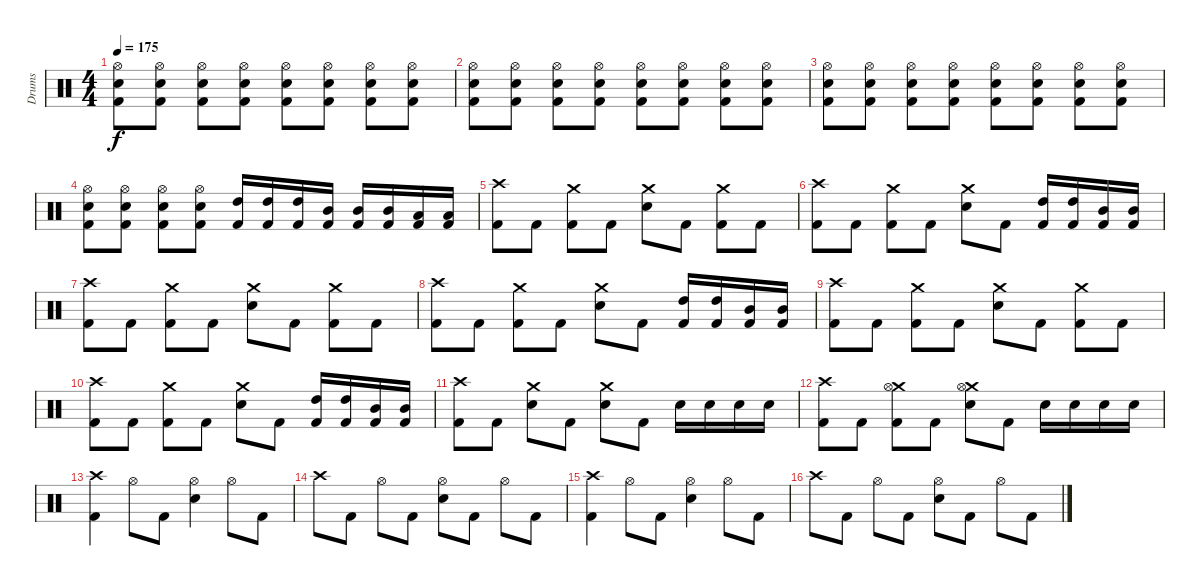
\track ("Drums" "Drums") {instrument percussion}
\staff {score}
\articulation defaults
\ts (4 4)
\tempo 175
\clef neutral
\ks c
("Hi-Hat (open)" "Snare (hit) 2" "Kick (hit) 2").8{dy f} ("Hi-Hat (open)" "Snare (hit) 2" "Kick (hit) 2").8 ("Hi-Hat (open)" "Snare (hit) 2" "Kick (hit) 2").8 ("Hi-Hat (open)" "Snare (hit) 2" "Kick (hit) 2").8 ("Hi-Hat (open)" "Snare (hit) 2" "Kick (hit) 2").8 ("Hi-Hat (open)" "Snare (hit) 2" "Kick (hit) 2").8 ("Hi-Hat (open)" "Snare (hit) 2" "Kick (hit) 2").8 ("Hi-Hat (open)" "Snare (hit) 2" "Kick (hit) 2").8 |
("Hi-Hat (open)" "Snare (hit) 2" "Kick (hit) 2").8 ("Hi-Hat (open)" "Snare (hit) 2" "Kick (hit) 2").8 ("Hi-Hat (open)" "Snare (hit) 2" "Kick (hit) 2").8 ("Hi-Hat (open)" "Snare (hit) 2" "Kick (hit) 2").8 ("Hi-Hat (open)" "Snare (hit) 2" "Kick (hit) 2").8 ("Hi-Hat (open)" "Snare (hit) 2" "Kick (hit) 2").8 ("Hi-Hat (open)" "Snare (hit) 2" "Kick (hit) 2").8 ("Hi-Hat (open)" "Snare (hit) 2" "Kick (hit) 2").8 |
("Hi-Hat (open)" "Snare (hit) 2" "Kick (hit) 2").8 ("Hi-Hat (open)" "Snare (hit) 2" "Kick (hit) 2").8 ("Hi-Hat (open)" "Snare (hit) 2" "Kick (hit) 2").8 ("Hi-Hat (open)" "Snare (hit) 2" "Kick (hit) 2").8 ("Hi-Hat (open)" "Snare (hit) 2" "Kick (hit) 2").8 ("Hi-Hat (open)" "Snare (hit) 2" "Kick (hit) 2").8 ("Hi-Hat (open)" "Snare (hit) 2" "Kick (hit) 2").8 ("Hi-Hat (open)" "Snare (hit) 2" "Kick (hit) 2").8 |
("Hi-Hat (open)" "Snare (hit) 2" "Kick (hit) 2").8 ("Hi-Hat (open)" "Snare (hit) 2" "Kick (hit) 2").8 ("Hi-Hat (open)" "Snare (hit) 2" "Kick (hit) 2").8 ("Hi-Hat (open)" "Snare (hit) 2" "Kick (hit) 2").8 ("High Tom (hit)" "Kick (hit) 2").16 ("High Tom (hit)" "Kick (hit) 2").16 ("High Tom (hit)" "Kick (hit) 2").16 ("Mid Tom (hit)" "Kick (hit) 2").16 ("Mid Tom (hit)" "Kick (hit) 2").16 ("Mid Tom (hit)" "Kick (hit) 2").16 ("Low Tom (hit)" "Kick (hit) 2").16 ("Low Tom (hit)" "Kick (hit) 2").16 |
("Crash high (hit)" "Kick (hit) 2").8 "Kick (hit) 2".8 ("Crash medium (hit)" "Kick (hit) 2").8 "Kick (hit) 2".8 ("Crash medium (hit)" "Snare (hit) 2").8 "Kick (hit) 2".8 ("Crash medium (hit)" "Kick (hit) 2").8 "Kick (hit) 2".8 |
("Crash high (hit)" "Kick (hit) 2").8 "Kick (hit) 2".8 ("Crash medium (hit)" "Kick (hit) 2").8 "Kick (hit) 2".8 ("Crash medium (hit)" "Snare (hit) 2").8 "Kick (hit) 2".8 ("High Tom (hit)" "Kick (hit) 2").16 ("High Tom (hit)" "Kick (hit) 2").16 ("Mid Tom (hit)" "Kick (hit) 2").16 ("Mid Tom (hit)" "Kick (hit) 2").16 |
("Crash high (hit)" "Kick (hit) 2").8 "Kick (hit) 2".8 ("Crash medium (hit)" "Kick (hit) 2").8 "Kick (hit) 2".8 ("Crash medium (hit)" "Snare (hit) 2").8 "Kick (hit) 2".8 ("Crash medium (hit)" "Kick (hit) 2").8 "Kick (hit) 2".8 |
("Crash high (hit)" "Kick (hit) 2").8 "Kick (hit) 2".8 ("Crash medium (hit)" "Kick (hit) 2").8 "Kick (hit) 2".8 ("Crash medium (hit)" "Snare (hit) 2").8 "Kick (hit) 2".8 ("High Tom (hit)" "Kick (hit) 2").16 ("High Tom (hit)" "Kick (hit) 2").16 ("Mid Tom (hit)" "Kick (hit) 2").16 ("Mid Tom (hit)" "Kick (hit) 2").16 |
("Crash high (hit)" "Kick (hit) 2").8 "Kick (hit) 2".8 ("Crash medium (hit)" "Kick (hit) 2").8 "Kick (hit) 2".8 ("Crash medium (hit)" "Snare (hit) 2").8 "Kick (hit) 2".8 ("Crash medium (hit)" "Kick (hit) 2").8 "Kick (hit) 2".8 |
("Crash high (hit)" "Kick (hit) 2").8 "Kick (hit) 2".8 ("Crash medium (hit)" "Kick (hit) 2").8 "Kick (hit) 2".8 ("Crash medium (hit)" "Snare (hit) 2").8 "Kick (hit) 2".8 ("High Tom (hit)" "Kick (hit) 2").16 ("High Tom (hit)" "Kick (hit) 2").16 ("Mid Tom (hit)" "Kick (hit) 2").16 ("Mid Tom (hit)" "Kick (hit) 2").16 |
("Crash high (hit)" "Kick (hit) 2").8 "Kick (hit) 2".8 ("Crash medium (hit)" "Snare (hit) 2").8 "Kick (hit) 2".8 ("Crash medium (hit)" "Snare (hit) 2").8 "Kick (hit) 2".8 "Snare (hit) 2".16 "Snare (hit) 2".16 "Snare (hit) 2".16 "Snare (hit) 2".16 |
("Crash high (hit)" "Kick (hit) 2").8 "Kick (hit) 2".8 ("Crash medium (hit)" "Hi-Hat (open)" "Kick (hit) 2").8 "Kick (hit) 2".8 ("Crash medium (hit)" "Hi-Hat (open)" "Snare (hit) 2").8 "Kick (hit) 2".8 "Snare (hit) 2".16 "Snare (hit) 2".16 "Snare (hit) 2".16 "Snare (hit) 2".16 |
("Crash high (hit)" "Kick (hit) 2").4 "Hi-Hat (open)".8 "Kick (hit) 2".8 ("Hi-Hat (open)" "Snare (hit) 2").4 "Hi-Hat (open)".8 "Kick (hit) 2".8 |
"Crash high (hit)".8 "Kick (hit) 2".8 "Hi-Hat (open)".8 "Kick (hit) 2".8 ("Hi-Hat (open)" "Snare (hit) 2").8 "Kick (hit) 2".8 "Hi-Hat (open)".8 "Kick (hit) 2".8 |
("Crash high (hit)" "Kick (hit) 2").4 "Hi-Hat (open)".8 "Kick (hit) 2".8 ("Hi-Hat (open)" "Snare (hit) 2").4 "Hi-Hat (open)".8 "Kick (hit) 2".8 |
"Crash high (hit)".8 "Kick (hit) 2".8 "Hi-Hat (open)".8 "Kick (hit) 2".8 ("Hi-Hat (open)" "Snare (hit) 2").8 "Kick (hit) 2".8 "Hi-Hat (open)".8 "Kick (hit) 2".8
